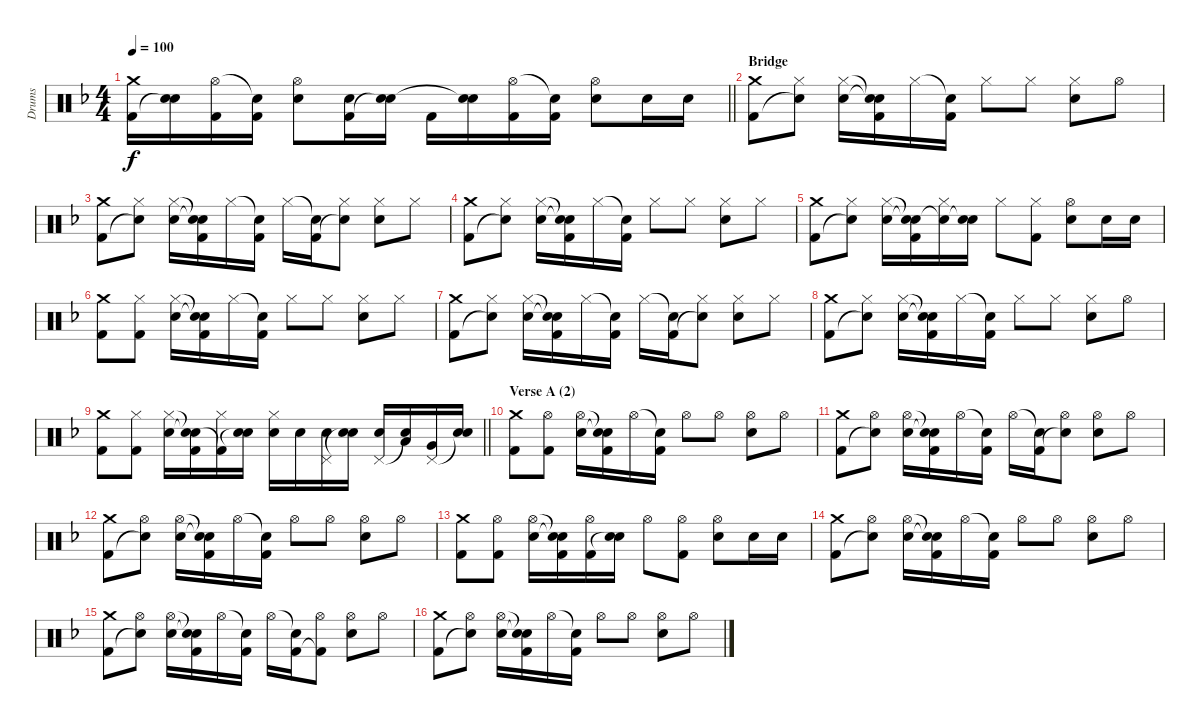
\track ("Drums" "Drums") {instrument percussion}
\staff {score}
\articulation defaults
\ts (4 4)
\tempo 100
\clef neutral
\barLineRight lightlight
\ks dminor
("Crash medium (hit)" "Kick (hit) 2").16{dy f} ("Electric Snare (hit)" "Snare (hit)"{t}).16 ("Hi-Hat (open)" "Kick (hit) 2").16 ("Snare (hit)"{t} "Kick (hit) 2").16 ("Hi-Hat (open)" "Electric Snare (hit)").8 ("Electric Snare (hit)" "Kick (hit) 2").16 ("Electric Snare (hit)" "Snare (hit)"{t}).16 "Kick (hit) 2".16 ("Electric Snare (hit)" "Snare (hit)"{t}).16 ("Hi-Hat (open)" "Kick (hit) 2").16 ("Snare (hit)"{t} "Kick (hit) 2").16 ("Hi-Hat (open)" "Electric Snare (hit)").8 "Electric Snare (hit)".16 "Electric Snare (hit)".16 |
\section ("" "Bridge")
("Crash medium (hit)" "Kick (hit) 2").8 ("Hi-Hat (closed)" "Snare (hit)"{t}).8 ("Hi-Hat (closed)" "Electric Snare (hit)").16 ("Snare (hit)"{t} "Snare (hit)"{t} "Kick (hit) 2").16 "Hi-Hat (closed)".16 ("Snare (hit)"{t} "Kick (hit) 2").16 "Hi-Hat (closed)".8 "Hi-Hat (closed)".8 ("Hi-Hat (closed)" "Electric Snare (hit)").8 "Hi-Hat (open)".8 |
("Crash medium (hit)" "Kick (hit) 2").8 ("Hi-Hat (closed)" "Snare (hit)"{t}).8 ("Hi-Hat (closed)" "Electric Snare (hit)").16 ("Snare (hit)"{t} "Snare (hit)"{t} "Kick (hit) 2").16 "Hi-Hat (closed)".16 ("Snare (hit)"{t} "Kick (hit) 2").16 "Hi-Hat (closed)".16 ("Snare (hit)"{t} "Kick (hit) 2").16 ("Hi-Hat (closed)" "Snare (hit)"{t}).8 ("Hi-Hat (closed)" "Electric Snare (hit)").8 "Hi-Hat (closed)".8 |
("Crash medium (hit)" "Kick (hit) 2").8 ("Hi-Hat (closed)" "Snare (hit)"{t}).8 ("Hi-Hat (closed)" "Electric Snare (hit)").16 ("Snare (hit)"{t} "Snare (hit)"{t} "Kick (hit) 2").16 "Hi-Hat (closed)".16 ("Snare (hit)"{t} "Kick (hit) 2").16 "Hi-Hat (closed)".8 "Hi-Hat (closed)".8 ("Hi-Hat (closed)" "Electric Snare (hit)").8 "Hi-Hat (closed)".8 |
("Crash medium (hit)" "Kick (hit) 2").8 ("Hi-Hat (closed)" "Snare (hit)"{t}).8 ("Hi-Hat (closed)" "Electric Snare (hit)").16 ("Snare (hit)"{t} "Snare (hit)"{t} "Kick (hit) 2").16 ("Hi-Hat (closed)" "Snare (hit)"{t}).16 ("Electric Snare (hit)" "Snare (hit)"{t}).16 "Hi-Hat (closed)".8 ("Hi-Hat (closed)" "Kick (hit) 2").8 ("Hi-Hat (open)" "Electric Snare (hit)").8 "Electric Snare (hit)".16 "Electric Snare (hit)".16 |
("Crash medium (hit)" "Kick (hit) 2").8 ("Hi-Hat (closed)" "Kick (hit) 2").8 ("Hi-Hat (closed)" "Electric Snare (hit)").16 ("Snare (hit)"{t} "Snare (hit)"{t} "Kick (hit) 2").16 "Hi-Hat (closed)".16 ("Snare (hit)"{t} "Kick (hit) 2").16 "Hi-Hat (closed)".8 "Hi-Hat (closed)".8 ("Hi-Hat (closed)" "Electric Snare (hit)").8 "Hi-Hat (closed)".8 |
("Crash medium (hit)" "Kick (hit) 2").8 ("Hi-Hat (closed)" "Snare (hit)"{t}).8 ("Hi-Hat (closed)" "Electric Snare (hit)").16 ("Snare (hit)"{t} "Snare (hit)"{t} "Kick (hit) 2").16 "Hi-Hat (closed)".16 ("Snare (hit)"{t} "Kick (hit) 2").16 "Hi-Hat (closed)".16 ("Snare (hit)"{t} "Kick (hit) 2").16 ("Hi-Hat (closed)" "Snare (hit)"{t}).8 ("Hi-Hat (closed)" "Electric Snare (hit)").8 "Hi-Hat (closed)".8 |
("Crash medium (hit)" "Kick (hit) 2").8 ("Hi-Hat (closed)" "Snare (hit)"{t}).8 ("Hi-Hat (closed)" "Electric Snare (hit)").16 ("Snare (hit)"{t} "Snare (hit)"{t} "Kick (hit) 2").16 "Hi-Hat (closed)".16 ("Snare (hit)"{t} "Kick (hit) 2").16 "Hi-Hat (closed)".8 "Hi-Hat (closed)".8 ("Hi-Hat (closed)" "Electric Snare (hit)").8 "Hi-Hat (open)".8 |
\barLineRight lightlight
("Crash medium (hit)" "Kick (hit) 2").8 ("Hi-Hat (closed)" "Kick (hit) 2").8 ("Hi-Hat (closed)" "Electric Snare (hit)").16 ("Snare (hit)"{t} "Snare (hit)"{t} "Kick (hit) 2").16 ("Hi-Hat (closed)" "Kick (hit) 2"{t}).16 ("Electric Snare (hit)" "Snare (hit)"{t}).16 ("Hi-Hat (closed)" "Electric Snare (hit)").16 "Electric Snare (hit)".16 ("Pedal Hi-Hat (hit)" "Electric Snare (hit)").16 ("Snare (hit)"{t} "Electric Snare (hit)").16 ("Pedal Hi-Hat (hit)" "Electric Snare (hit)").16 ("Snare (hit)"{t} "Low Tom (hit)").16 ("Pedal Hi-Hat (hit)" "Very Low Tom (hit)").16 ("Snare (hit)"{t} "Electric Snare (hit)").16 |
\section ("" "Verse A (2)")
("Crash medium (hit)" "Kick (hit) 2").8 ("Hi-Hat (open)" "Kick (hit) 2").8 ("Hi-Hat (open)" "Electric Snare (hit)").16 ("Snare (hit)"{t} "Snare (hit)"{t} "Kick (hit) 2").16 "Hi-Hat (open)".16 ("Snare (hit)"{t} "Kick (hit) 2").16 "Hi-Hat (open)".8 "Hi-Hat (open)".8 ("Hi-Hat (open)" "Electric Snare (hit)").8 "Hi-Hat (open)".8 |
("Crash medium (hit)" "Kick (hit) 2").8 ("Hi-Hat (open)" "Snare (hit)"{t}).8 ("Hi-Hat (open)" "Electric Snare (hit)").16 ("Snare (hit)"{t} "Snare (hit)"{t} "Kick (hit) 2").16 "Hi-Hat (open)".16 ("Snare (hit)"{t} "Kick (hit) 2").16 "Hi-Hat (open)".16 ("Snare (hit)"{t} "Kick (hit) 2").16 ("Hi-Hat (open)" "Snare (hit)"{t}).8 ("Hi-Hat (open)" "Electric Snare (hit)").8 "Hi-Hat (open)".8 |
("Crash medium (hit)" "Kick (hit) 2").8 ("Hi-Hat (open)" "Snare (hit)"{t}).8 ("Hi-Hat (open)" "Electric Snare (hit)").16 ("Snare (hit)"{t} "Snare (hit)"{t} "Kick (hit) 2").16 "Hi-Hat (open)".16 ("Snare (hit)"{t} "Kick (hit) 2").16 "Hi-Hat (open)".8 "Hi-Hat (open)".8 ("Hi-Hat (open)" "Electric Snare (hit)").8 "Hi-Hat (open)".8 |
("Crash medium (hit)" "Kick (hit) 2").8 ("Hi-Hat (open)" "Kick (hit) 2").8 ("Hi-Hat (open)" "Electric Snare (hit)").16 ("Snare (hit)"{t} "Snare (hit)"{t} "Kick (hit) 2").16 ("Hi-Hat (open)" "Kick (hit) 2").16 ("Electric Snare (hit)" "Snare (hit)"{t}).16 "Hi-Hat (open)".8 ("Hi-Hat (open)" "Kick (hit) 2").8 ("Hi-Hat (open)" "Electric Snare (hit)").8 "Electric Snare (hit)".16 "Electric Snare (hit)".16 |
("Crash medium (hit)" "Kick (hit) 2").8 ("Hi-Hat (open)" "Snare (hit)"{t}).8 ("Hi-Hat (open)" "Electric Snare (hit)").16 ("Snare (hit)"{t} "Snare (hit)"{t} "Kick (hit) 2").16 "Hi-Hat (open)".16 ("Snare (hit)"{t} "Kick (hit) 2").16 "Hi-Hat (open)".8 "Hi-Hat (open)".8 ("Hi-Hat (open)" "Electric Snare (hit)").8 "Hi-Hat (open)".8 |
("Crash medium (hit)" "Kick (hit) 2").8 ("Hi-Hat (open)" "Snare (hit)"{t}).8 ("Hi-Hat (open)" "Electric Snare (hit)").16 ("Snare (hit)"{t} "Snare (hit)"{t} "Kick (hit) 2").16 "Hi-Hat (open)".16 ("Snare (hit)"{t} "Kick (hit) 2").16 "Hi-Hat (open)".16 ("Snare (hit)"{t} "Kick (hit) 2").16 ("Hi-Hat (open)" "Kick (hit) 2"{t}).8 ("Hi-Hat (open)" "Electric Snare (hit)").8 "Hi-Hat (open)".8 |
("Crash medium (hit)" "Kick (hit) 2").8 ("Hi-Hat (open)" "Snare (hit)"{t}).8 ("Hi-Hat (open)" "Electric Snare (hit)").16 ("Snare (hit)"{t} "Snare (hit)"{t} "Kick (hit) 2").16 "Hi-Hat (open)".16 ("Snare (hit)"{t} "Kick (hit) 2").16 "Hi-Hat (open)".8 "Hi-Hat (open)".8 ("Hi-Hat (open)" "Electric Snare (hit)").8 "Hi-Hat (open)".8
